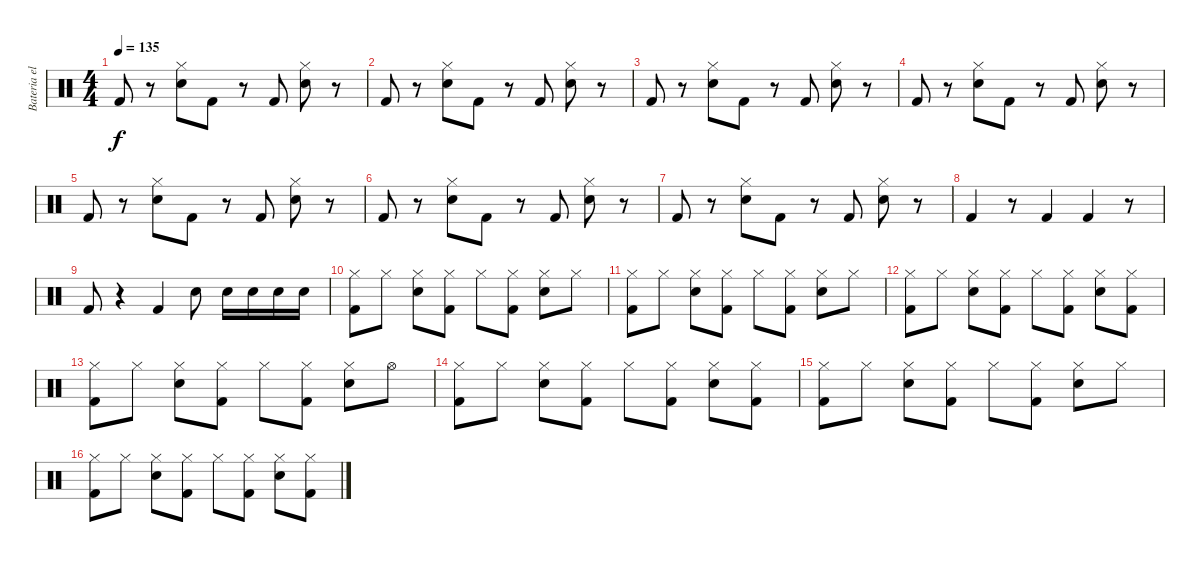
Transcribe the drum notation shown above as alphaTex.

\track ("Bateria electrica" "Bateria el") {instrument percussion}
\staff {score}
\articulation defaults
\ts (4 4)
\tempo 135
\clef neutral
\ks c "Kick (hit) 2".8{dy f}
r.8 ("Hi-Hat (closed)" "Snare (hit) 2").8 "Kick (hit) 2".8 r.8 "Kick (hit) 2".8 ("Hi-Hat (closed)" "Snare (hit) 2").8 r.8 |
"Kick (hit) 2".8 r.8 ("Hi-Hat (closed)" "Snare (hit) 2").8 "Kick (hit) 2".8 r.8 "Kick (hit) 2".8 ("Hi-Hat (closed)" "Snare (hit) 2").8 r.8 |
"Kick (hit) 2".8 r.8 ("Hi-Hat (closed)" "Snare (hit) 2").8 "Kick (hit) 2".8 r.8 "Kick (hit) 2".8 ("Hi-Hat (closed)" "Snare (hit) 2").8 r.8 |
"Kick (hit) 2".8 r.8 ("Hi-Hat (closed)" "Snare (hit) 2").8 "Kick (hit) 2".8 r.8 "Kick (hit) 2".8 ("Hi-Hat (closed)" "Snare (hit) 2").8 r.8 |
"Kick (hit) 2".8 r.8 ("Hi-Hat (closed)" "Snare (hit) 2").8 "Kick (hit) 2".8 r.8 "Kick (hit) 2".8 ("Hi-Hat (closed)" "Snare (hit) 2").8 r.8 |
"Kick (hit) 2".8 r.8 ("Hi-Hat (closed)" "Snare (hit) 2").8 "Kick (hit) 2".8 r.8 "Kick (hit) 2".8 ("Hi-Hat (closed)" "Snare (hit) 2").8 r.8 |
"Kick (hit) 2".8 r.8 ("Hi-Hat (closed)" "Snare (hit) 2").8 "Kick (hit) 2".8 r.8 "Kick (hit) 2".8 ("Hi-Hat (closed)" "Snare (hit) 2").8 r.8 |
"Kick (hit) 2".4 r.8 "Kick (hit) 2".4 "Kick (hit) 2".4 r.8 |
"Kick (hit) 2".8 r.4 "Kick (hit) 2".4 "Snare (hit) 2".8 "Snare (hit) 2".16 "Snare (hit) 2".16 "Snare (hit) 2".16 "Snare (hit) 2".16 |
("Hi-Hat (closed)" "Kick (hit) 2").8 "Hi-Hat (closed)".8 ("Hi-Hat (closed)" "Snare (hit) 2").8 ("Hi-Hat (closed)" "Kick (hit) 2").8 "Hi-Hat (closed)".8 ("Hi-Hat (closed)" "Kick (hit) 2").8 ("Hi-Hat (closed)" "Snare (hit) 2").8 "Hi-Hat (closed)".8 |
("Hi-Hat (closed)" "Kick (hit) 2").8 "Hi-Hat (closed)".8 ("Hi-Hat (closed)" "Snare (hit) 2").8 ("Hi-Hat (closed)" "Kick (hit) 2").8 "Hi-Hat (closed)".8 ("Hi-Hat (closed)" "Kick (hit) 2").8 ("Hi-Hat (closed)" "Snare (hit) 2").8 "Hi-Hat (closed)".8 |
("Hi-Hat (closed)" "Kick (hit) 2").8 "Hi-Hat (closed)".8 ("Hi-Hat (closed)" "Snare (hit) 2").8 ("Hi-Hat (closed)" "Kick (hit) 2").8 "Hi-Hat (closed)".8 ("Hi-Hat (closed)" "Kick (hit) 2").8 ("Hi-Hat (closed)" "Snare (hit) 2").8 ("Hi-Hat (closed)" "Kick (hit) 2").8 |
("Hi-Hat (closed)" "Kick (hit) 2").8 "Hi-Hat (closed)".8 ("Hi-Hat (closed)" "Snare (hit) 2").8 ("Hi-Hat (closed)" "Kick (hit) 2").8 "Hi-Hat (closed)".8 ("Hi-Hat (closed)" "Kick (hit) 2").8 ("Hi-Hat (closed)" "Snare (hit) 2").8 "Hi-Hat (open)".8 |
("Hi-Hat (closed)" "Kick (hit) 2").8 "Hi-Hat (closed)".8 ("Hi-Hat (closed)" "Snare (hit) 2").8 ("Hi-Hat (closed)" "Kick (hit) 2").8 "Hi-Hat (closed)".8 ("Hi-Hat (closed)" "Kick (hit) 2").8 ("Hi-Hat (closed)" "Snare (hit) 2").8 ("Hi-Hat (closed)" "Kick (hit) 2").8 |
("Hi-Hat (closed)" "Kick (hit) 2").8 "Hi-Hat (closed)".8 ("Hi-Hat (closed)" "Snare (hit) 2").8 ("Hi-Hat (closed)" "Kick (hit) 2").8 "Hi-Hat (closed)".8 ("Hi-Hat (closed)" "Kick (hit) 2").8 ("Hi-Hat (closed)" "Snare (hit) 2").8 "Hi-Hat (closed)".8 |
("Hi-Hat (closed)" "Kick (hit) 2").8 "Hi-Hat (closed)".8 ("Hi-Hat (closed)" "Snare (hit) 2").8 ("Hi-Hat (closed)" "Kick (hit) 2").8 "Hi-Hat (closed)".8 ("Hi-Hat (closed)" "Kick (hit) 2").8 ("Hi-Hat (closed)" "Snare (hit) 2").8 ("Hi-Hat (closed)" "Kick (hit) 2").8
